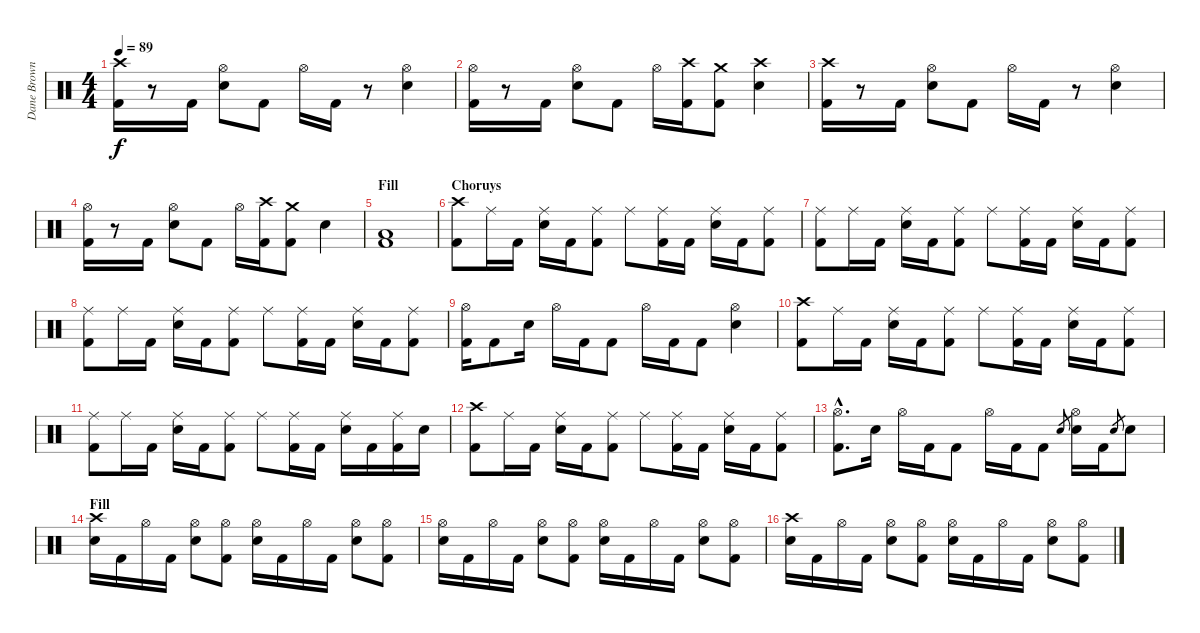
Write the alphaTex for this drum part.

\track ("Dane Brown (drums)" "Dane Brown") {instrument percussion}
\staff {score}
\articulation defaults
\ts (4 4)
\tempo 89
\clef neutral
\ks c
("Crash high (hit)" "Kick (hit) 2").16{dy f} r.8 "Kick (hit) 2".16 ("Hi-Hat (open)" "Electric Snare (hit)").8 "Kick (hit) 2".8 "Hi-Hat (open)".16 "Kick (hit) 2".16 r.8 ("Hi-Hat (open)" "Electric Snare (hit)").4 |
("Hi-Hat (open)" "Kick (hit) 2").16 r.8 "Kick (hit) 2".16 ("Hi-Hat (open)" "Electric Snare (hit)").8 "Kick (hit) 2".8 "Hi-Hat (open)".16 ("Crash high (hit)" "Kick (hit) 2").16 ("Crash medium (hit)" "Kick (hit) 2").8 ("Crash high (hit)" "Electric Snare (hit)").4 |
("Crash high (hit)" "Kick (hit) 2").16 r.8 "Kick (hit) 2".16 ("Hi-Hat (open)" "Electric Snare (hit)").8 "Kick (hit) 2".8 "Hi-Hat (open)".16 "Kick (hit) 2".16 r.8 ("Hi-Hat (open)" "Electric Snare (hit)").4 |
("Hi-Hat (open)" "Kick (hit) 2").16 r.8 "Kick (hit) 2".16 ("Hi-Hat (open)" "Electric Snare (hit)").8 "Kick (hit) 2".8 "Hi-Hat (open)".16 ("Crash high (hit)" "Kick (hit) 2").16 ("Crash medium (hit)" "Kick (hit) 2").8 "Electric Snare (hit)".4 |
\section ("" "Fill")
("Low Floor Tom (hit)" "Kick (hit) 2").1 |
\section ("" "Choruys")
("Crash high (hit)" "Kick (hit) 2").8 "Ride (middle)".16 "Kick (hit) 2".16 ("Ride (middle)" "Electric Snare (hit)").16 "Kick (hit) 2".16 ("Ride (middle)" "Kick (hit) 2").8 "Ride (middle)".8 ("Ride (middle)" "Kick (hit) 2").16 "Kick (hit) 2".16 ("Ride (middle)" "Electric Snare (hit)").16 "Kick (hit) 2".16 ("Ride (middle)" "Kick (hit) 2").8 |
("Ride (middle)" "Kick (hit) 2").8 "Ride (middle)".16 "Kick (hit) 2".16 ("Ride (middle)" "Electric Snare (hit)").16 "Kick (hit) 2".16 ("Ride (middle)" "Kick (hit) 2").8 "Ride (middle)".8 ("Ride (middle)" "Kick (hit) 2").16 "Kick (hit) 2".16 ("Ride (middle)" "Electric Snare (hit)").16 "Kick (hit) 2".16 ("Ride (middle)" "Kick (hit) 2").8 |
("Ride (middle)" "Kick (hit) 2").8 "Ride (middle)".16 "Kick (hit) 2".16 ("Ride (middle)" "Electric Snare (hit)").16 "Kick (hit) 2".16 ("Ride (middle)" "Kick (hit) 2").8 "Ride (middle)".8 ("Ride (middle)" "Kick (hit) 2").16 "Kick (hit) 2".16 ("Ride (middle)" "Electric Snare (hit)").16 "Kick (hit) 2".16 ("Ride (middle)" "Kick (hit) 2").8 |
("Hi-Hat (open)" "Kick (hit) 2").16 "Kick (hit) 2".8 "Electric Snare (hit)".16 "Hi-Hat (open)".16 "Kick (hit) 2".16 "Kick (hit) 2".8 "Hi-Hat (open)".16 "Kick (hit) 2".16 "Kick (hit) 2".8 ("Hi-Hat (open)" "Electric Snare (hit)").4 |
("Crash high (hit)" "Kick (hit) 2").8 "Ride (middle)".16 "Kick (hit) 2".16 ("Ride (middle)" "Electric Snare (hit)").16 "Kick (hit) 2".16 ("Ride (middle)" "Kick (hit) 2").8 "Ride (middle)".8 ("Ride (middle)" "Kick (hit) 2").16 "Kick (hit) 2".16 ("Ride (middle)" "Electric Snare (hit)").16 "Kick (hit) 2".16 ("Ride (middle)" "Kick (hit) 2").8 |
("Ride (middle)" "Kick (hit) 2").8 "Ride (middle)".16 "Kick (hit) 2".16 ("Ride (middle)" "Electric Snare (hit)").16 "Kick (hit) 2".16 ("Ride (middle)" "Kick (hit) 2").8 "Ride (middle)".8 ("Ride (middle)" "Kick (hit) 2").16 "Kick (hit) 2".16 ("Ride (middle)" "Electric Snare (hit)").16 "Kick (hit) 2".16 ("Ride (middle)" "Kick (hit) 2").16 "Electric Snare (hit)".16 |
("Crash high (hit)" "Kick (hit) 2").8 "Ride (middle)".16 "Kick (hit) 2".16 ("Ride (middle)" "Electric Snare (hit)").16 "Kick (hit) 2".16 ("Ride (middle)" "Kick (hit) 2").8 "Ride (middle)".8 ("Ride (middle)" "Kick (hit) 2").16 "Kick (hit) 2".16 ("Ride (middle)" "Electric Snare (hit)").16 "Kick (hit) 2".16 ("Ride (middle)" "Kick (hit) 2").8 |
("Hi-Hat (open)"{hac} "Kick (hit) 2"{hac}).8{d} "Electric Snare (hit)".16 "Hi-Hat (open)".16 "Kick (hit) 2".16 "Kick (hit) 2".8 "Hi-Hat (open)".16 "Kick (hit) 2".16 "Kick (hit) 2".8 "Electric Snare (hit)".8{gr} ("Hi-Hat (open)" "Electric Snare (hit)").16 "Kick (hit) 2".16 "Electric Snare (hit)".8{gr} "Electric Snare (hit)".8 |
\section ("" "Fill")
("Crash high (hit)" "Electric Snare (hit)").16 "Kick (hit) 2".16 "Hi-Hat (open)".16 "Kick (hit) 2".16 ("Hi-Hat (open)" "Electric Snare (hit)").8 ("Hi-Hat (open)" "Kick (hit) 2").8 ("Hi-Hat (open)" "Electric Snare (hit)").16 "Kick (hit) 2".16 "Hi-Hat (open)".16 "Kick (hit) 2".16 ("Hi-Hat (open)" "Electric Snare (hit)").8 ("Hi-Hat (open)" "Kick (hit) 2").8 |
("Hi-Hat (open)" "Electric Snare (hit)").16 "Kick (hit) 2".16 "Hi-Hat (open)".16 "Kick (hit) 2".16 ("Hi-Hat (open)" "Electric Snare (hit)").8 ("Hi-Hat (open)" "Kick (hit) 2").8 ("Hi-Hat (open)" "Electric Snare (hit)").16 "Kick (hit) 2".16 "Hi-Hat (open)".16 "Kick (hit) 2".16 ("Hi-Hat (open)" "Electric Snare (hit)").8 ("Hi-Hat (open)" "Kick (hit) 2").8 |
("Crash high (hit)" "Electric Snare (hit)").16 "Kick (hit) 2".16 "Hi-Hat (open)".16 "Kick (hit) 2".16 ("Hi-Hat (open)" "Electric Snare (hit)").8 ("Hi-Hat (open)" "Kick (hit) 2").8 ("Hi-Hat (open)" "Electric Snare (hit)").16 "Kick (hit) 2".16 "Hi-Hat (open)".16 "Kick (hit) 2".16 ("Hi-Hat (open)" "Electric Snare (hit)").8 ("Hi-Hat (open)" "Kick (hit) 2").8
